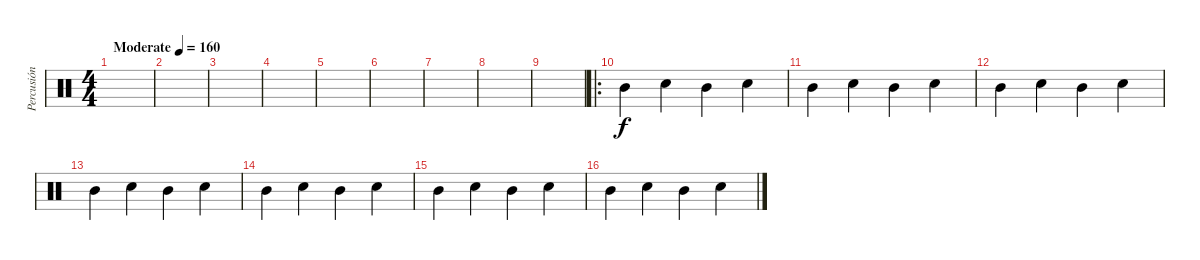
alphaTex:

\track ("Percusión" "Percusión") {instrument percussion}
\staff {score}
\articulation defaults
\ts (4 4)
\tempo (160 "Moderate")
\clef neutral
\ks c
|
|
|
|
|
|
|
|
|
\ro "Mid Tom (hit)".4 "Electric Snare (hit)".4 "Mid Tom (hit)".4 "Electric Snare (hit)".4
|
"Mid Tom (hit)".4 "Electric Snare (hit)".4 "Mid Tom (hit)".4 "Electric Snare (hit)".4 |
"Mid Tom (hit)".4 "Electric Snare (hit)".4 "Mid Tom (hit)".4 "Electric Snare (hit)".4 |
"Mid Tom (hit)".4 "Electric Snare (hit)".4 "Mid Tom (hit)".4 "Electric Snare (hit)".4 |
"Mid Tom (hit)".4 "Electric Snare (hit)".4 "Mid Tom (hit)".4 "Electric Snare (hit)".4 |
"Mid Tom (hit)".4 "Electric Snare (hit)".4 "Mid Tom (hit)".4 "Electric Snare (hit)".4 |
"Mid Tom (hit)".4 "Electric Snare (hit)".4 "Mid Tom (hit)".4 "Electric Snare (hit)".4
